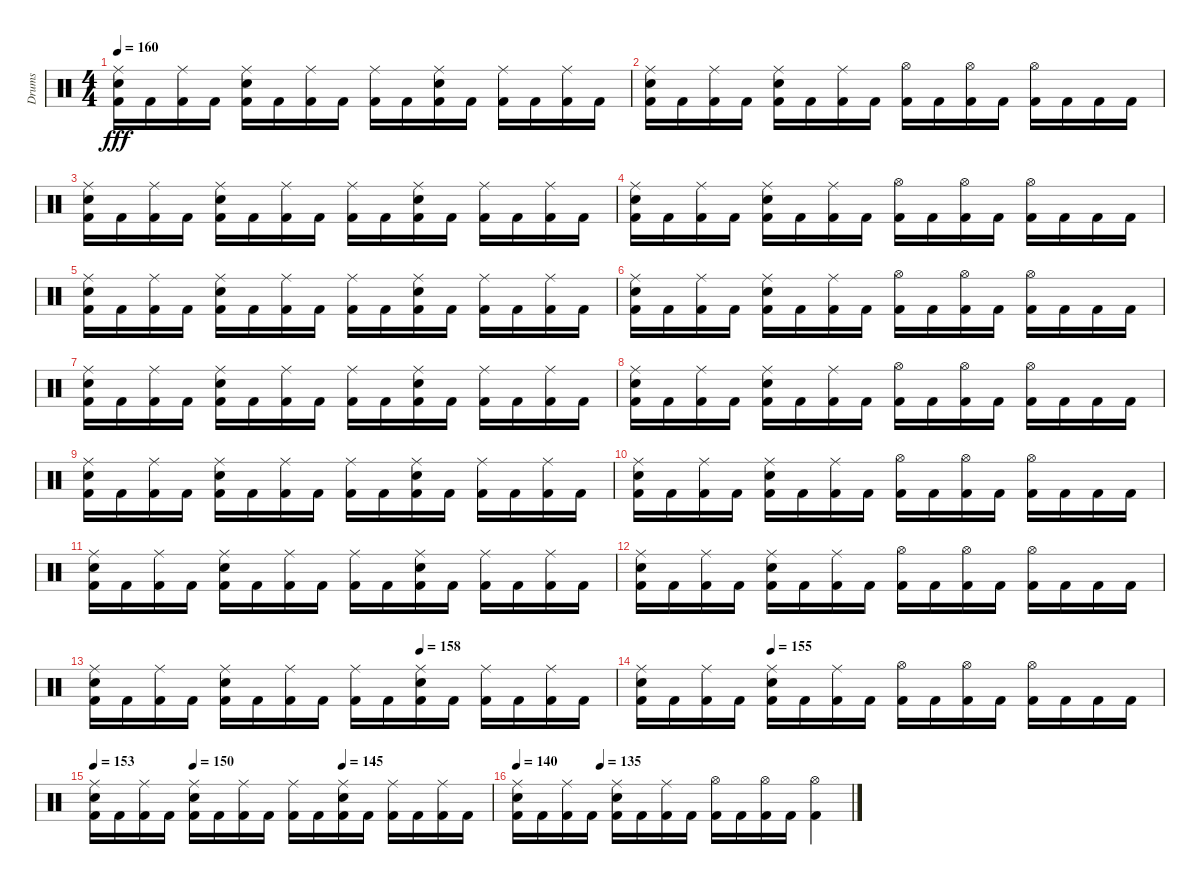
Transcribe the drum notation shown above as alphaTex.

\track ("Drums" "Drums") {instrument percussion}
\staff {score}
\articulation defaults
\ts (4 4)
\tempo 160
\clef neutral
\ks c
("Kick (hit) 2" "Electric Snare (hit)" "Ride (middle)").16{dy fff} "Kick (hit) 2".16 ("Kick (hit) 2" "Ride (middle)").16 "Kick (hit) 2".16 ("Kick (hit) 2" "Electric Snare (hit)" "Ride (middle)").16 "Kick (hit) 2".16 ("Kick (hit) 2" "Ride (middle)").16 "Kick (hit) 2".16 ("Kick (hit) 2" "Ride (middle)").16 "Kick (hit) 2".16 ("Kick (hit) 2" "Electric Snare (hit)" "Ride (middle)").16 "Kick (hit) 2".16 ("Kick (hit) 2" "Ride (middle)").16 "Kick (hit) 2".16 ("Kick (hit) 2" "Ride (middle)").16 "Kick (hit) 2".16 |
("Kick (hit) 2" "Electric Snare (hit)" "Ride (middle)").16 "Kick (hit) 2".16 ("Kick (hit) 2" "Ride (middle)").16 "Kick (hit) 2".16 ("Kick (hit) 2" "Electric Snare (hit)" "Ride (middle)").16 "Kick (hit) 2".16 ("Kick (hit) 2" "Ride (middle)").16 "Kick (hit) 2".16 ("Kick (hit) 2" "Hi-Hat (open)").16 "Kick (hit) 2".16 ("Kick (hit) 2" "Hi-Hat (open)").16 "Kick (hit) 2".16 ("Kick (hit) 2" "Hi-Hat (open)").16 "Kick (hit) 2".16 "Kick (hit) 2".16 "Kick (hit) 2".16 |
("Kick (hit) 2" "Electric Snare (hit)" "Ride (middle)").16 "Kick (hit) 2".16 ("Kick (hit) 2" "Ride (middle)").16 "Kick (hit) 2".16 ("Kick (hit) 2" "Electric Snare (hit)" "Ride (middle)").16 "Kick (hit) 2".16 ("Kick (hit) 2" "Ride (middle)").16 "Kick (hit) 2".16 ("Kick (hit) 2" "Ride (middle)").16 "Kick (hit) 2".16 ("Kick (hit) 2" "Electric Snare (hit)" "Ride (middle)").16 "Kick (hit) 2".16 ("Kick (hit) 2" "Ride (middle)").16 "Kick (hit) 2".16 ("Kick (hit) 2" "Ride (middle)").16 "Kick (hit) 2".16 |
("Kick (hit) 2" "Electric Snare (hit)" "Ride (middle)").16 "Kick (hit) 2".16 ("Kick (hit) 2" "Ride (middle)").16 "Kick (hit) 2".16 ("Kick (hit) 2" "Electric Snare (hit)" "Ride (middle)").16 "Kick (hit) 2".16 ("Kick (hit) 2" "Ride (middle)").16 "Kick (hit) 2".16 ("Kick (hit) 2" "Hi-Hat (open)").16 "Kick (hit) 2".16 ("Kick (hit) 2" "Hi-Hat (open)").16 "Kick (hit) 2".16 ("Kick (hit) 2" "Hi-Hat (open)").16 "Kick (hit) 2".16 "Kick (hit) 2".16 "Kick (hit) 2".16 |
("Kick (hit) 2" "Electric Snare (hit)" "Ride (middle)").16 "Kick (hit) 2".16 ("Kick (hit) 2" "Ride (middle)").16 "Kick (hit) 2".16 ("Kick (hit) 2" "Electric Snare (hit)" "Ride (middle)").16 "Kick (hit) 2".16 ("Kick (hit) 2" "Ride (middle)").16 "Kick (hit) 2".16 ("Kick (hit) 2" "Ride (middle)").16 "Kick (hit) 2".16 ("Kick (hit) 2" "Electric Snare (hit)" "Ride (middle)").16 "Kick (hit) 2".16 ("Kick (hit) 2" "Ride (middle)").16 "Kick (hit) 2".16 ("Kick (hit) 2" "Ride (middle)").16 "Kick (hit) 2".16 |
("Kick (hit) 2" "Electric Snare (hit)" "Ride (middle)").16 "Kick (hit) 2".16 ("Kick (hit) 2" "Ride (middle)").16 "Kick (hit) 2".16 ("Kick (hit) 2" "Electric Snare (hit)" "Ride (middle)").16 "Kick (hit) 2".16 ("Kick (hit) 2" "Ride (middle)").16 "Kick (hit) 2".16 ("Kick (hit) 2" "Hi-Hat (open)").16 "Kick (hit) 2".16 ("Kick (hit) 2" "Hi-Hat (open)").16 "Kick (hit) 2".16 ("Kick (hit) 2" "Hi-Hat (open)").16 "Kick (hit) 2".16 "Kick (hit) 2".16 "Kick (hit) 2".16 |
("Kick (hit) 2" "Electric Snare (hit)" "Ride (middle)").16 "Kick (hit) 2".16 ("Kick (hit) 2" "Ride (middle)").16 "Kick (hit) 2".16 ("Kick (hit) 2" "Electric Snare (hit)" "Ride (middle)").16 "Kick (hit) 2".16 ("Kick (hit) 2" "Ride (middle)").16 "Kick (hit) 2".16 ("Kick (hit) 2" "Ride (middle)").16 "Kick (hit) 2".16 ("Kick (hit) 2" "Electric Snare (hit)" "Ride (middle)").16 "Kick (hit) 2".16 ("Kick (hit) 2" "Ride (middle)").16 "Kick (hit) 2".16 ("Kick (hit) 2" "Ride (middle)").16 "Kick (hit) 2".16 |
("Kick (hit) 2" "Electric Snare (hit)" "Ride (middle)").16 "Kick (hit) 2".16 ("Kick (hit) 2" "Ride (middle)").16 "Kick (hit) 2".16 ("Kick (hit) 2" "Electric Snare (hit)" "Ride (middle)").16 "Kick (hit) 2".16 ("Kick (hit) 2" "Ride (middle)").16 "Kick (hit) 2".16 ("Kick (hit) 2" "Hi-Hat (open)").16 "Kick (hit) 2".16 ("Kick (hit) 2" "Hi-Hat (open)").16 "Kick (hit) 2".16 ("Kick (hit) 2" "Hi-Hat (open)").16 "Kick (hit) 2".16 "Kick (hit) 2".16 "Kick (hit) 2".16 |
("Kick (hit) 2" "Electric Snare (hit)" "Ride (middle)").16 "Kick (hit) 2".16 ("Kick (hit) 2" "Ride (middle)").16 "Kick (hit) 2".16 ("Kick (hit) 2" "Electric Snare (hit)" "Ride (middle)").16 "Kick (hit) 2".16 ("Kick (hit) 2" "Ride (middle)").16 "Kick (hit) 2".16 ("Kick (hit) 2" "Ride (middle)").16 "Kick (hit) 2".16 ("Kick (hit) 2" "Electric Snare (hit)" "Ride (middle)").16 "Kick (hit) 2".16 ("Kick (hit) 2" "Ride (middle)").16 "Kick (hit) 2".16 ("Kick (hit) 2" "Ride (middle)").16 "Kick (hit) 2".16 |
("Kick (hit) 2" "Electric Snare (hit)" "Ride (middle)").16 "Kick (hit) 2".16 ("Kick (hit) 2" "Ride (middle)").16 "Kick (hit) 2".16 ("Kick (hit) 2" "Electric Snare (hit)" "Ride (middle)").16 "Kick (hit) 2".16 ("Kick (hit) 2" "Ride (middle)").16 "Kick (hit) 2".16 ("Kick (hit) 2" "Hi-Hat (open)").16 "Kick (hit) 2".16 ("Kick (hit) 2" "Hi-Hat (open)").16 "Kick (hit) 2".16 ("Kick (hit) 2" "Hi-Hat (open)").16 "Kick (hit) 2".16 "Kick (hit) 2".16 "Kick (hit) 2".16 |
("Kick (hit) 2" "Electric Snare (hit)" "Ride (middle)").16 "Kick (hit) 2".16 ("Kick (hit) 2" "Ride (middle)").16 "Kick (hit) 2".16 ("Kick (hit) 2" "Electric Snare (hit)" "Ride (middle)").16 "Kick (hit) 2".16 ("Kick (hit) 2" "Ride (middle)").16 "Kick (hit) 2".16 ("Kick (hit) 2" "Ride (middle)").16 "Kick (hit) 2".16 ("Kick (hit) 2" "Electric Snare (hit)" "Ride (middle)").16 "Kick (hit) 2".16 ("Kick (hit) 2" "Ride (middle)").16 "Kick (hit) 2".16 ("Kick (hit) 2" "Ride (middle)").16 "Kick (hit) 2".16 |
("Kick (hit) 2" "Electric Snare (hit)" "Ride (middle)").16 "Kick (hit) 2".16 ("Kick (hit) 2" "Ride (middle)").16 "Kick (hit) 2".16 ("Kick (hit) 2" "Electric Snare (hit)" "Ride (middle)").16 "Kick (hit) 2".16 ("Kick (hit) 2" "Ride (middle)").16 "Kick (hit) 2".16 ("Kick (hit) 2" "Hi-Hat (open)").16 "Kick (hit) 2".16 ("Kick (hit) 2" "Hi-Hat (open)").16 "Kick (hit) 2".16 ("Kick (hit) 2" "Hi-Hat (open)").16 "Kick (hit) 2".16 "Kick (hit) 2".16 "Kick (hit) 2".16 |
\tempo (158 0.625)
("Kick (hit) 2" "Electric Snare (hit)" "Ride (middle)").16 "Kick (hit) 2".16 ("Kick (hit) 2" "Ride (middle)").16 "Kick (hit) 2".16 ("Kick (hit) 2" "Electric Snare (hit)" "Ride (middle)").16 "Kick (hit) 2".16 ("Kick (hit) 2" "Ride (middle)").16 "Kick (hit) 2".16 ("Kick (hit) 2" "Ride (middle)").16 "Kick (hit) 2".16 ("Kick (hit) 2" "Electric Snare (hit)" "Ride (middle)").16 "Kick (hit) 2".16 ("Kick (hit) 2" "Ride (middle)").16 "Kick (hit) 2".16 ("Kick (hit) 2" "Ride (middle)").16 "Kick (hit) 2".16 |
\tempo (155 0.25)
("Kick (hit) 2" "Electric Snare (hit)" "Ride (middle)").16 "Kick (hit) 2".16 ("Kick (hit) 2" "Ride (middle)").16 "Kick (hit) 2".16 ("Kick (hit) 2" "Electric Snare (hit)" "Ride (middle)").16 "Kick (hit) 2".16 ("Kick (hit) 2" "Ride (middle)").16 "Kick (hit) 2".16 ("Kick (hit) 2" "Hi-Hat (open)").16 "Kick (hit) 2".16 ("Kick (hit) 2" "Hi-Hat (open)").16 "Kick (hit) 2".16 ("Kick (hit) 2" "Hi-Hat (open)").16 "Kick (hit) 2".16 "Kick (hit) 2".16 "Kick (hit) 2".16 |
\tempo 153
\tempo (150 0.25)
\tempo (145 0.625)
("Kick (hit) 2" "Electric Snare (hit)" "Ride (middle)").16 "Kick (hit) 2".16 ("Kick (hit) 2" "Ride (middle)").16 "Kick (hit) 2".16 ("Kick (hit) 2" "Electric Snare (hit)" "Ride (middle)").16 "Kick (hit) 2".16 ("Kick (hit) 2" "Ride (middle)").16 "Kick (hit) 2".16 ("Kick (hit) 2" "Ride (middle)").16 "Kick (hit) 2".16 ("Kick (hit) 2" "Electric Snare (hit)" "Ride (middle)").16 "Kick (hit) 2".16 ("Kick (hit) 2" "Ride (middle)").16 "Kick (hit) 2".16 ("Kick (hit) 2" "Ride (middle)").16 "Kick (hit) 2".16 |
\tempo 140
\tempo (135 0.25)
("Kick (hit) 2" "Electric Snare (hit)" "Ride (middle)").16 "Kick (hit) 2".16 ("Kick (hit) 2" "Ride (middle)").16 "Kick (hit) 2".16 ("Kick (hit) 2" "Electric Snare (hit)" "Ride (middle)").16 "Kick (hit) 2".16 ("Kick (hit) 2" "Ride (middle)").16 "Kick (hit) 2".16 ("Kick (hit) 2" "Hi-Hat (open)").16 "Kick (hit) 2".16 ("Kick (hit) 2" "Hi-Hat (open)").16 "Kick (hit) 2".16 ("Kick (hit) 2" "Hi-Hat (open)").4
